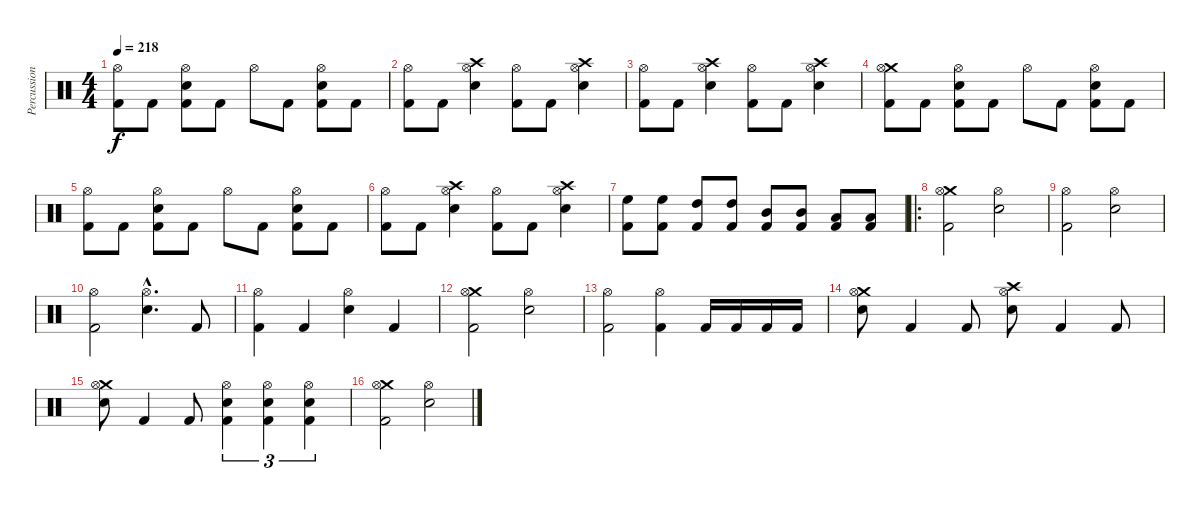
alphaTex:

\track ("Percussion" "Percussion") {instrument percussion}
\staff {score}
\articulation defaults
\ts (4 4)
\tempo 218
\clef neutral
\ks c
("Hi-Hat (open)" "Kick (hit) 2").8{dy f} "Kick (hit) 2".8 ("Hi-Hat (open)" "Electric Snare (hit)" "Kick (hit) 2").8 "Kick (hit) 2".8 "Hi-Hat (open)".8 "Kick (hit) 2".8 ("Hi-Hat (open)" "Electric Snare (hit)" "Kick (hit) 2").8 "Kick (hit) 2".8 |
("Hi-Hat (open)" "Kick (hit) 2").8 "Kick (hit) 2".8 ("Crash high (hit)" "Hi-Hat (open)" "Electric Snare (hit)").4 ("Hi-Hat (open)" "Kick (hit) 2").8 "Kick (hit) 2".8 ("Crash high (hit)" "Hi-Hat (open)" "Electric Snare (hit)").4 |
("Hi-Hat (open)" "Kick (hit) 2").8 "Kick (hit) 2".8 ("Crash high (hit)" "Hi-Hat (open)" "Electric Snare (hit)").4 ("Hi-Hat (open)" "Kick (hit) 2").8 "Kick (hit) 2".8 ("Crash high (hit)" "Hi-Hat (open)" "Electric Snare (hit)").4 |
("Crash medium (hit)" "Hi-Hat (open)" "Kick (hit) 2").8 "Kick (hit) 2".8 ("Hi-Hat (open)" "Electric Snare (hit)" "Kick (hit) 2").8 "Kick (hit) 2".8 "Hi-Hat (open)".8 "Kick (hit) 2".8 ("Hi-Hat (open)" "Electric Snare (hit)" "Kick (hit) 2").8 "Kick (hit) 2".8 |
("Hi-Hat (open)" "Kick (hit) 2").8 "Kick (hit) 2".8 ("Hi-Hat (open)" "Electric Snare (hit)" "Kick (hit) 2").8 "Kick (hit) 2".8 "Hi-Hat (open)".8 "Kick (hit) 2".8 ("Hi-Hat (open)" "Electric Snare (hit)" "Kick (hit) 2").8 "Kick (hit) 2".8 |
("Hi-Hat (open)" "Kick (hit) 2").8 "Kick (hit) 2".8 ("Crash high (hit)" "Hi-Hat (open)" "Electric Snare (hit)").4 ("Hi-Hat (open)" "Kick (hit) 2").8 "Kick (hit) 2".8 ("Crash high (hit)" "Hi-Hat (open)" "Electric Snare (hit)").4 |
("High Floor Tom (hit)" "Kick (hit) 2").8 ("High Floor Tom (hit)" "Kick (hit) 2").8 ("High Tom (hit)" "Kick (hit) 2").8 ("High Tom (hit)" "Kick (hit) 2").8 ("Mid Tom (hit)" "Kick (hit) 2").8 ("Mid Tom (hit)" "Kick (hit) 2").8 ("Low Tom (hit)" "Kick (hit) 2").8 ("Low Tom (hit)" "Kick (hit) 2").8 |
\ro
("Crash medium (hit)" "Hi-Hat (open)" "Kick (hit) 2").2 ("Hi-Hat (open)" "Electric Snare (hit)").2 |
("Hi-Hat (open)" "Kick (hit) 2").2 ("Hi-Hat (open)" "Electric Snare (hit)").2 |
("Hi-Hat (open)" "Kick (hit) 2").2 ("Hi-Hat (open)"{hac} "Electric Snare (hit)"{hac}).4{d} "Kick (hit) 2".8 |
("Hi-Hat (open)" "Kick (hit) 2").4 "Kick (hit) 2".4 ("Hi-Hat (open)" "Electric Snare (hit)").4 "Kick (hit) 2".4 |
("Crash medium (hit)" "Hi-Hat (open)" "Kick (hit) 2").2 ("Hi-Hat (open)" "Electric Snare (hit)").2 |
("Hi-Hat (open)" "Kick (hit) 2").2 ("Hi-Hat (open)" "Kick (hit) 2").4 "Kick (hit) 2".16 "Kick (hit) 2".16 "Kick (hit) 2".16 "Kick (hit) 2".16 |
("Crash medium (hit)" "Hi-Hat (open)" "Electric Snare (hit)").8 "Kick (hit) 2".4 "Kick (hit) 2".8 ("Crash high (hit)" "Hi-Hat (open)" "Electric Snare (hit)").8 "Kick (hit) 2".4 "Kick (hit) 2".8 |
("Crash medium (hit)" "Hi-Hat (open)" "Electric Snare (hit)").8 "Kick (hit) 2".4 "Kick (hit) 2".8 ("Hi-Hat (open)" "Electric Snare (hit)" "Kick (hit) 2").4{tu (3 2)} ("Hi-Hat (open)" "Electric Snare (hit)" "Kick (hit) 2").4{tu (3 2)} ("Hi-Hat (open)" "Electric Snare (hit)" "Kick (hit) 2").4{tu (3 2)} |
("Crash medium (hit)" "Hi-Hat (open)" "Kick (hit) 2").2 ("Hi-Hat (open)" "Electric Snare (hit)").2
